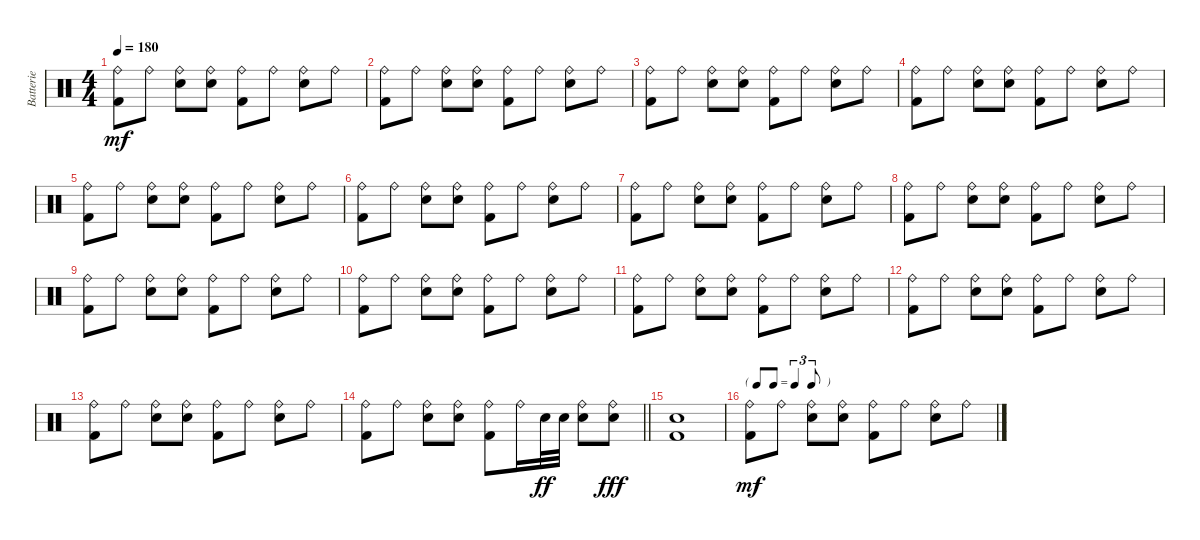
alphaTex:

\track ("Batterie" "Batterie") {instrument percussion}
\staff {score}
\articulation defaults
\ts (4 4)
\tempo 180
\clef neutral
\ks c
("Kick (hit) 2" "Ride (bell)").8{dy mf} "Ride (bell)".8 ("Electric Snare (hit)" "Ride (bell)").8 ("Electric Snare (hit)" "Ride (bell)").8 ("Kick (hit) 2" "Ride (bell)").8 "Ride (bell)".8 ("Electric Snare (hit)" "Ride (bell)").8 "Ride (bell)".8 |
("Kick (hit) 2" "Ride (bell)").8 "Ride (bell)".8 ("Electric Snare (hit)" "Ride (bell)").8 ("Electric Snare (hit)" "Ride (bell)").8 ("Kick (hit) 2" "Ride (bell)").8 "Ride (bell)".8 ("Electric Snare (hit)" "Ride (bell)").8 "Ride (bell)".8 |
("Kick (hit) 2" "Ride (bell)").8 "Ride (bell)".8 ("Electric Snare (hit)" "Ride (bell)").8 ("Electric Snare (hit)" "Ride (bell)").8 ("Kick (hit) 2" "Ride (bell)").8 "Ride (bell)".8 ("Electric Snare (hit)" "Ride (bell)").8 "Ride (bell)".8 |
("Kick (hit) 2" "Ride (bell)").8 "Ride (bell)".8 ("Electric Snare (hit)" "Ride (bell)").8 ("Electric Snare (hit)" "Ride (bell)").8 ("Kick (hit) 2" "Ride (bell)").8 "Ride (bell)".8 ("Electric Snare (hit)" "Ride (bell)").8 "Ride (bell)".8 |
("Kick (hit) 2" "Ride (bell)").8 "Ride (bell)".8 ("Electric Snare (hit)" "Ride (bell)").8 ("Electric Snare (hit)" "Ride (bell)").8 ("Kick (hit) 2" "Ride (bell)").8 "Ride (bell)".8 ("Electric Snare (hit)" "Ride (bell)").8 "Ride (bell)".8 |
("Kick (hit) 2" "Ride (bell)").8 "Ride (bell)".8 ("Electric Snare (hit)" "Ride (bell)").8 ("Electric Snare (hit)" "Ride (bell)").8 ("Kick (hit) 2" "Ride (bell)").8 "Ride (bell)".8 ("Electric Snare (hit)" "Ride (bell)").8 "Ride (bell)".8 |
("Kick (hit) 2" "Ride (bell)").8 "Ride (bell)".8 ("Electric Snare (hit)" "Ride (bell)").8 ("Electric Snare (hit)" "Ride (bell)").8 ("Kick (hit) 2" "Ride (bell)").8 "Ride (bell)".8 ("Electric Snare (hit)" "Ride (bell)").8 "Ride (bell)".8 |
("Kick (hit) 2" "Ride (bell)").8 "Ride (bell)".8 ("Electric Snare (hit)" "Ride (bell)").8 ("Electric Snare (hit)" "Ride (bell)").8 ("Kick (hit) 2" "Ride (bell)").8 "Ride (bell)".8 ("Electric Snare (hit)" "Ride (bell)").8 "Ride (bell)".8 |
("Kick (hit) 2" "Ride (bell)").8 "Ride (bell)".8 ("Electric Snare (hit)" "Ride (bell)").8 ("Electric Snare (hit)" "Ride (bell)").8 ("Kick (hit) 2" "Ride (bell)").8 "Ride (bell)".8 ("Electric Snare (hit)" "Ride (bell)").8 "Ride (bell)".8 |
("Kick (hit) 2" "Ride (bell)").8 "Ride (bell)".8 ("Electric Snare (hit)" "Ride (bell)").8 ("Electric Snare (hit)" "Ride (bell)").8 ("Kick (hit) 2" "Ride (bell)").8 "Ride (bell)".8 ("Electric Snare (hit)" "Ride (bell)").8 "Ride (bell)".8 |
("Kick (hit) 2" "Ride (bell)").8 "Ride (bell)".8 ("Electric Snare (hit)" "Ride (bell)").8 ("Electric Snare (hit)" "Ride (bell)").8 ("Kick (hit) 2" "Ride (bell)").8 "Ride (bell)".8 ("Electric Snare (hit)" "Ride (bell)").8 "Ride (bell)".8 |
("Kick (hit) 2" "Ride (bell)").8 "Ride (bell)".8 ("Electric Snare (hit)" "Ride (bell)").8 ("Electric Snare (hit)" "Ride (bell)").8 ("Kick (hit) 2" "Ride (bell)").8 "Ride (bell)".8 ("Electric Snare (hit)" "Ride (bell)").8 "Ride (bell)".8 |
("Kick (hit) 2" "Ride (bell)").8 "Ride (bell)".8 ("Electric Snare (hit)" "Ride (bell)").8 ("Electric Snare (hit)" "Ride (bell)").8 ("Kick (hit) 2" "Ride (bell)").8 "Ride (bell)".8 ("Electric Snare (hit)" "Ride (bell)").8 "Ride (bell)".8 |
\barLineRight lightlight
("Kick (hit) 2" "Ride (bell)").8 "Ride (bell)".8 ("Electric Snare (hit)" "Ride (bell)").8 ("Electric Snare (hit)" "Ride (bell)").8 ("Kick (hit) 2" "Ride (bell)").8 "Ride (bell)".16 "Electric Snare (hit)".32{dy ff} "Electric Snare (hit)".32 ("Electric Snare (hit)" "Ride (bell)").8 ("Ride (bell)" "Electric Snare (hit)").8{dy fff} |
("Kick (hit) 2" "Electric Snare (hit)").1 |
\tf triplet8th
("Kick (hit) 2" "Ride (bell)").8{dy mf} "Ride (bell)".8 ("Electric Snare (hit)" "Ride (bell)").8 ("Electric Snare (hit)" "Ride (bell)").8 ("Kick (hit) 2" "Ride (bell)").8 "Ride (bell)".8 ("Electric Snare (hit)" "Ride (bell)").8 "Ride (bell)".8
